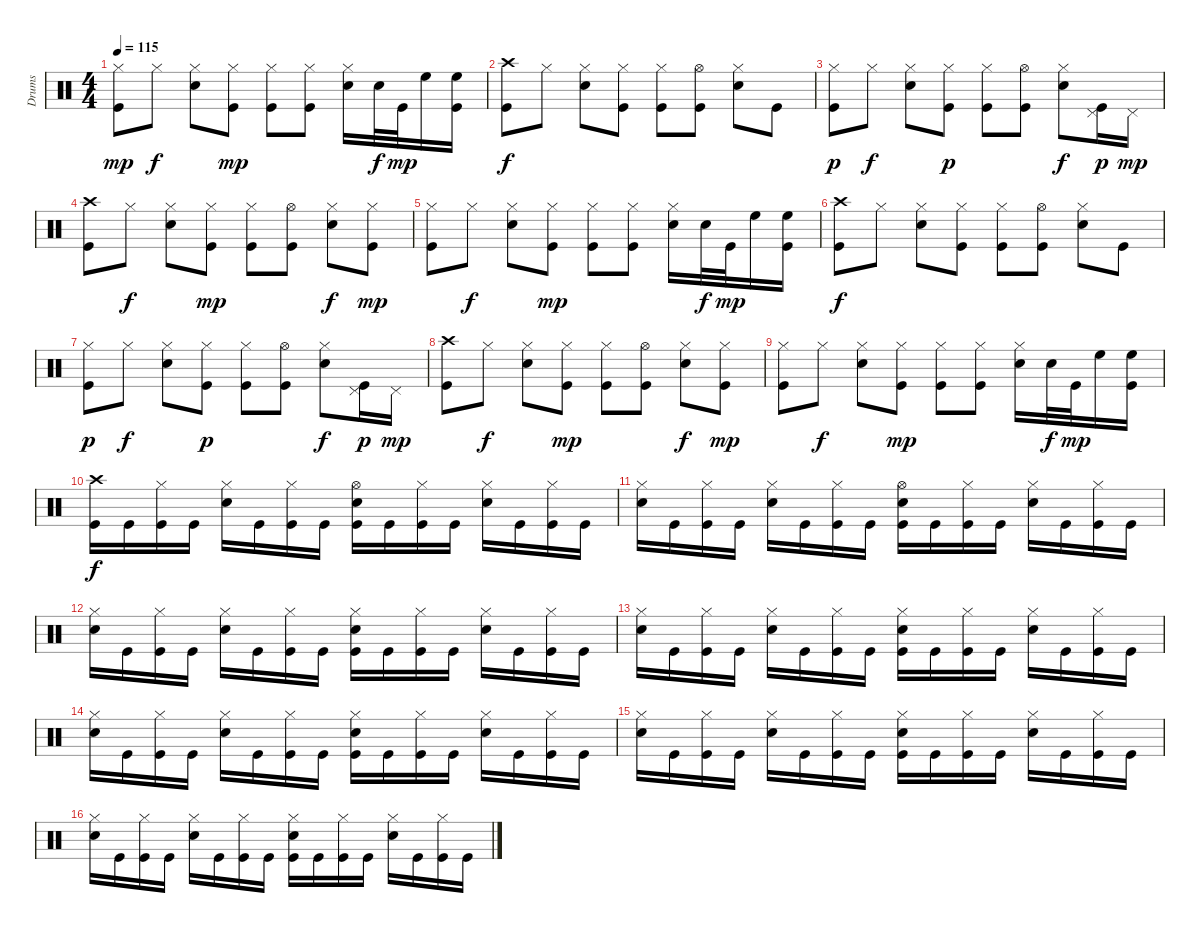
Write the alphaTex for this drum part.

\track ("Drums" "Drums") {instrument percussion}
\staff {score}
\articulation defaults
\ts (4 4)
\tempo 115
\clef neutral
\ks c
("Hi-Hat (closed)" "Kick (hit)").8{dy mp} "Hi-Hat (closed)".8{dy f} ("Hi-Hat (closed)" "Snare (hit) 2").8 ("Hi-Hat (closed)" "Kick (hit)").8{dy mp} ("Hi-Hat (closed)" "Kick (hit)").8 ("Hi-Hat (closed)" "Kick (hit)").8 ("Hi-Hat (closed)" "Snare (hit) 2").16 "Snare (hit) 2".32{dy f} "Kick (hit)".32{dy mp} "High Floor Tom (hit)".16 ("High Floor Tom (hit)" "Kick (hit)").16 |
("Crash high (hit)" "Kick (hit)").8{dy f} "Hi-Hat (closed)".8 ("Hi-Hat (closed)" "Snare (hit) 2").8 ("Hi-Hat (closed)" "Kick (hit)").8 ("Hi-Hat (closed)" "Kick (hit)").8 ("Hi-Hat (open)" "Kick (hit)").8 ("Hi-Hat (closed)" "Snare (hit) 2").8 "Kick (hit)".8 |
("Hi-Hat (closed)" "Kick (hit)").8{dy p} "Hi-Hat (closed)".8{dy f} ("Hi-Hat (closed)" "Snare (hit) 2").8 ("Hi-Hat (closed)" "Kick (hit)").8{dy p} ("Hi-Hat (closed)" "Kick (hit)").8 ("Hi-Hat (open)" "Kick (hit)").8 ("Hi-Hat (closed)" "Snare (hit) 2").8{dy f} ("Pedal Hi-Hat (hit)" "Kick (hit)").16{dy p} "Pedal Hi-Hat (hit)".16{dy mp} |
("Crash high (hit)" "Kick (hit)").8 "Hi-Hat (closed)".8{dy f} ("Hi-Hat (closed)" "Snare (hit) 2").8 ("Hi-Hat (closed)" "Kick (hit)").8{dy mp} ("Hi-Hat (closed)" "Kick (hit)").8 ("Hi-Hat (open)" "Kick (hit)").8 ("Hi-Hat (closed)" "Snare (hit) 2").8{dy f} ("Hi-Hat (closed)" "Kick (hit)").8{dy mp} |
("Hi-Hat (closed)" "Kick (hit)").8 "Hi-Hat (closed)".8{dy f} ("Hi-Hat (closed)" "Snare (hit) 2").8 ("Hi-Hat (closed)" "Kick (hit)").8{dy mp} ("Hi-Hat (closed)" "Kick (hit)").8 ("Hi-Hat (closed)" "Kick (hit)").8 ("Hi-Hat (closed)" "Snare (hit) 2").16 "Snare (hit) 2".32{dy f} "Kick (hit)".32{dy mp} "High Floor Tom (hit)".16 ("High Floor Tom (hit)" "Kick (hit)").16 |
("Crash high (hit)" "Kick (hit)").8{dy f} "Hi-Hat (closed)".8 ("Hi-Hat (closed)" "Snare (hit) 2").8 ("Hi-Hat (closed)" "Kick (hit)").8 ("Hi-Hat (closed)" "Kick (hit)").8 ("Hi-Hat (open)" "Kick (hit)").8 ("Hi-Hat (closed)" "Snare (hit) 2").8 "Kick (hit)".8 |
("Hi-Hat (closed)" "Kick (hit)").8{dy p} "Hi-Hat (closed)".8{dy f} ("Hi-Hat (closed)" "Snare (hit) 2").8 ("Hi-Hat (closed)" "Kick (hit)").8{dy p} ("Hi-Hat (closed)" "Kick (hit)").8 ("Hi-Hat (open)" "Kick (hit)").8 ("Hi-Hat (closed)" "Snare (hit) 2").8{dy f} ("Pedal Hi-Hat (hit)" "Kick (hit)").16{dy p} "Pedal Hi-Hat (hit)".16{dy mp} |
("Crash high (hit)" "Kick (hit)").8 "Hi-Hat (closed)".8{dy f} ("Hi-Hat (closed)" "Snare (hit) 2").8 ("Hi-Hat (closed)" "Kick (hit)").8{dy mp} ("Hi-Hat (closed)" "Kick (hit)").8 ("Hi-Hat (open)" "Kick (hit)").8 ("Hi-Hat (closed)" "Snare (hit) 2").8{dy f} ("Hi-Hat (closed)" "Kick (hit)").8{dy mp} |
("Hi-Hat (closed)" "Kick (hit)").8 "Hi-Hat (closed)".8{dy f} ("Hi-Hat (closed)" "Snare (hit) 2").8 ("Hi-Hat (closed)" "Kick (hit)").8{dy mp} ("Hi-Hat (closed)" "Kick (hit)").8 ("Hi-Hat (closed)" "Kick (hit)").8 ("Hi-Hat (closed)" "Snare (hit) 2").16 "Snare (hit) 2".32{dy f} "Kick (hit)".32{dy mp} "High Floor Tom (hit)".16 ("High Floor Tom (hit)" "Kick (hit)").16 |
("Crash high (hit)" "Kick (hit)").16{dy f} "Kick (hit)".16 ("Hi-Hat (closed)" "Kick (hit)").16 "Kick (hit)".16 ("Hi-Hat (closed)" "Snare (hit) 2").16 "Kick (hit)".16 ("Hi-Hat (closed)" "Kick (hit)").16 "Kick (hit)".16 ("Hi-Hat (open)" "Snare (hit) 2" "Kick (hit)").16 "Kick (hit)".16 ("Hi-Hat (closed)" "Kick (hit)").16 "Kick (hit)".16 ("Hi-Hat (closed)" "Snare (hit) 2").16 "Kick (hit)".16 ("Hi-Hat (closed)" "Kick (hit)").16 "Kick (hit)".16 |
("Hi-Hat (closed)" "Snare (hit) 2").16 "Kick (hit)".16 ("Hi-Hat (closed)" "Kick (hit)").16 "Kick (hit)".16 ("Hi-Hat (closed)" "Snare (hit) 2").16 "Kick (hit)".16 ("Hi-Hat (closed)" "Kick (hit)").16 "Kick (hit)".16 ("Hi-Hat (open)" "Snare (hit) 2" "Kick (hit)").16 "Kick (hit)".16 ("Hi-Hat (closed)" "Kick (hit)").16 "Kick (hit)".16 ("Hi-Hat (closed)" "Snare (hit) 2").16 "Kick (hit)".16 ("Hi-Hat (closed)" "Kick (hit)").16 "Kick (hit)".16 |
("Hi-Hat (closed)" "Snare (hit) 2").16 "Kick (hit)".16 ("Hi-Hat (closed)" "Kick (hit)").16 "Kick (hit)".16 ("Hi-Hat (closed)" "Snare (hit) 2").16 "Kick (hit)".16 ("Hi-Hat (closed)" "Kick (hit)").16 "Kick (hit)".16 ("Hi-Hat (closed)" "Snare (hit) 2" "Kick (hit)").16 "Kick (hit)".16 ("Hi-Hat (closed)" "Kick (hit)").16 "Kick (hit)".16 ("Hi-Hat (closed)" "Snare (hit) 2").16 "Kick (hit)".16 ("Hi-Hat (closed)" "Kick (hit)").16 "Kick (hit)".16 |
("Hi-Hat (closed)" "Snare (hit) 2").16 "Kick (hit)".16 ("Hi-Hat (closed)" "Kick (hit)").16 "Kick (hit)".16 ("Hi-Hat (closed)" "Snare (hit) 2").16 "Kick (hit)".16 ("Hi-Hat (closed)" "Kick (hit)").16 "Kick (hit)".16 ("Hi-Hat (closed)" "Snare (hit) 2" "Kick (hit)").16 "Kick (hit)".16 ("Hi-Hat (closed)" "Kick (hit)").16 "Kick (hit)".16 ("Hi-Hat (closed)" "Snare (hit) 2").16 "Kick (hit)".16 ("Hi-Hat (closed)" "Kick (hit)").16 "Kick (hit)".16 |
("Hi-Hat (closed)" "Snare (hit) 2").16 "Kick (hit)".16 ("Hi-Hat (closed)" "Kick (hit)").16 "Kick (hit)".16 ("Hi-Hat (closed)" "Snare (hit) 2").16 "Kick (hit)".16 ("Hi-Hat (closed)" "Kick (hit)").16 "Kick (hit)".16 ("Hi-Hat (closed)" "Snare (hit) 2" "Kick (hit)").16 "Kick (hit)".16 ("Hi-Hat (closed)" "Kick (hit)").16 "Kick (hit)".16 ("Hi-Hat (closed)" "Snare (hit) 2").16 "Kick (hit)".16 ("Hi-Hat (closed)" "Kick (hit)").16 "Kick (hit)".16 |
("Hi-Hat (closed)" "Snare (hit) 2").16 "Kick (hit)".16 ("Hi-Hat (closed)" "Kick (hit)").16 "Kick (hit)".16 ("Hi-Hat (closed)" "Snare (hit) 2").16 "Kick (hit)".16 ("Hi-Hat (closed)" "Kick (hit)").16 "Kick (hit)".16 ("Hi-Hat (closed)" "Snare (hit) 2" "Kick (hit)").16 "Kick (hit)".16 ("Hi-Hat (closed)" "Kick (hit)").16 "Kick (hit)".16 ("Hi-Hat (closed)" "Snare (hit) 2").16 "Kick (hit)".16 ("Hi-Hat (closed)" "Kick (hit)").16 "Kick (hit)".16 |
("Hi-Hat (closed)" "Snare (hit) 2").16 "Kick (hit)".16 ("Hi-Hat (closed)" "Kick (hit)").16 "Kick (hit)".16 ("Hi-Hat (closed)" "Snare (hit) 2").16 "Kick (hit)".16 ("Hi-Hat (closed)" "Kick (hit)").16 "Kick (hit)".16 ("Hi-Hat (closed)" "Snare (hit) 2" "Kick (hit)").16 "Kick (hit)".16 ("Hi-Hat (closed)" "Kick (hit)").16 "Kick (hit)".16 ("Hi-Hat (closed)" "Snare (hit) 2").16 "Kick (hit)".16 ("Hi-Hat (closed)" "Kick (hit)").16 "Kick (hit)".16
